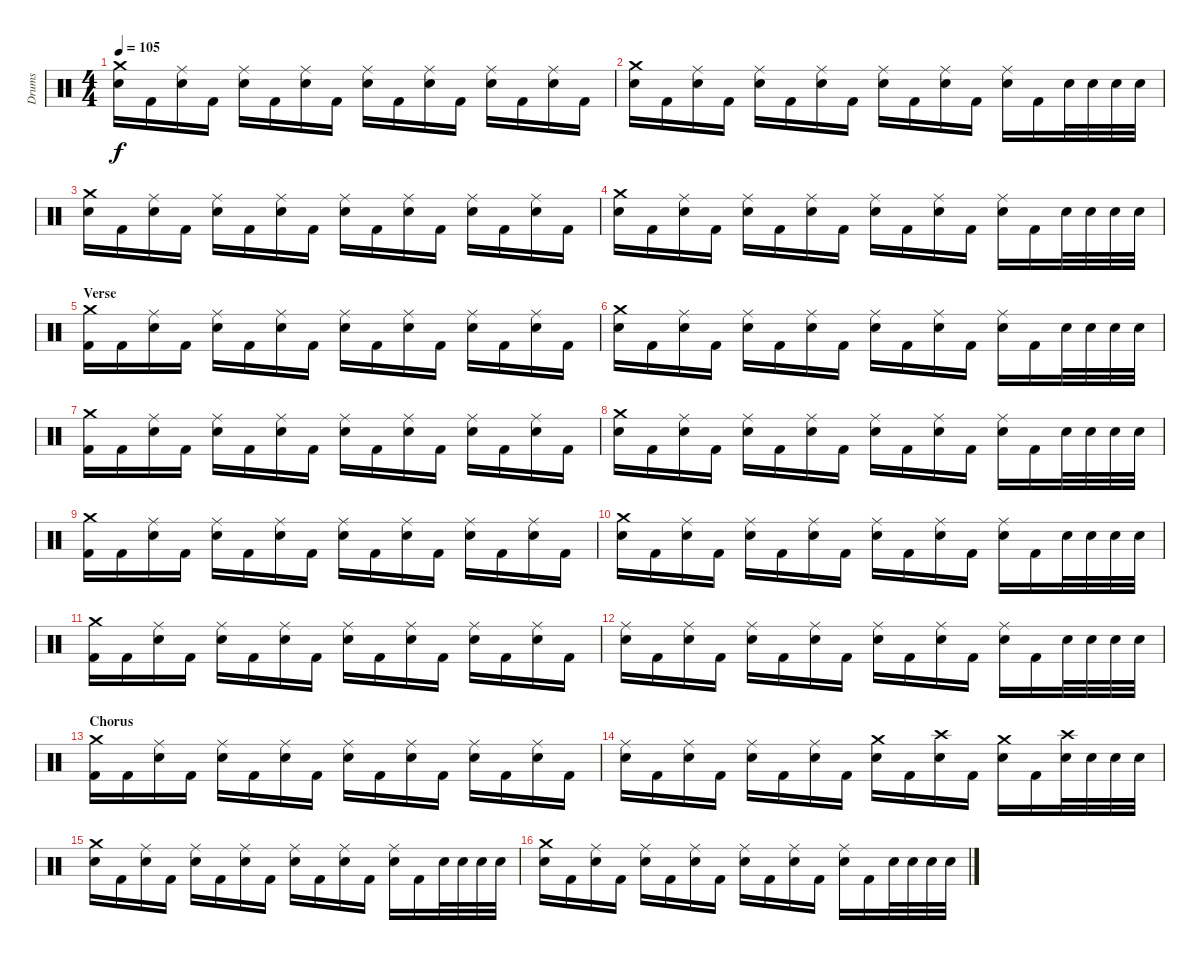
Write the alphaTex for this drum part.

\track ("Drums" "Drums") {instrument percussion}
\staff {score}
\articulation defaults
\ts (4 4)
\tempo 105
\clef neutral
\ks c
("Crash medium (hit)" "Electric Snare (hit)").16{dy f} "Kick (hit) 2".16 ("Ride (middle)" "Electric Snare (hit)").16 "Kick (hit) 2".16 ("Ride (middle)" "Electric Snare (hit)").16 "Kick (hit) 2".16 ("Ride (middle)" "Electric Snare (hit)").16 "Kick (hit) 2".16 ("Ride (middle)" "Electric Snare (hit)").16 "Kick (hit) 2".16 ("Ride (middle)" "Electric Snare (hit)").16 "Kick (hit) 2".16 ("Ride (middle)" "Electric Snare (hit)").16 "Kick (hit) 2".16 ("Ride (middle)" "Electric Snare (hit)").16 "Kick (hit) 2".16 |
("Crash medium (hit)" "Electric Snare (hit)").16 "Kick (hit) 2".16 ("Ride (middle)" "Electric Snare (hit)").16 "Kick (hit) 2".16 ("Ride (middle)" "Electric Snare (hit)").16 "Kick (hit) 2".16 ("Ride (middle)" "Electric Snare (hit)").16 "Kick (hit) 2".16 ("Ride (middle)" "Electric Snare (hit)").16 "Kick (hit) 2".16 ("Ride (middle)" "Electric Snare (hit)").16 "Kick (hit) 2".16 ("Ride (middle)" "Electric Snare (hit)").16 "Kick (hit) 2".16 "Electric Snare (hit)".32 "Electric Snare (hit)".32 "Electric Snare (hit)".32 "Electric Snare (hit)".32 |
("Crash medium (hit)" "Electric Snare (hit)").16 "Kick (hit) 2".16 ("Ride (middle)" "Electric Snare (hit)").16 "Kick (hit) 2".16 ("Ride (middle)" "Electric Snare (hit)").16 "Kick (hit) 2".16 ("Ride (middle)" "Electric Snare (hit)").16 "Kick (hit) 2".16 ("Ride (middle)" "Electric Snare (hit)").16 "Kick (hit) 2".16 ("Ride (middle)" "Electric Snare (hit)").16 "Kick (hit) 2".16 ("Ride (middle)" "Electric Snare (hit)").16 "Kick (hit) 2".16 ("Ride (middle)" "Electric Snare (hit)").16 "Kick (hit) 2".16 |
("Crash medium (hit)" "Electric Snare (hit)").16 "Kick (hit) 2".16 ("Ride (middle)" "Electric Snare (hit)").16 "Kick (hit) 2".16 ("Ride (middle)" "Electric Snare (hit)").16 "Kick (hit) 2".16 ("Ride (middle)" "Electric Snare (hit)").16 "Kick (hit) 2".16 ("Ride (middle)" "Electric Snare (hit)").16 "Kick (hit) 2".16 ("Ride (middle)" "Electric Snare (hit)").16 "Kick (hit) 2".16 ("Ride (middle)" "Electric Snare (hit)").16 "Kick (hit) 2".16 "Electric Snare (hit)".32 "Electric Snare (hit)".32 "Electric Snare (hit)".32 "Electric Snare (hit)".32 |
\section ("" "Verse")
("Crash medium (hit)" "Kick (hit) 2").16 "Kick (hit) 2".16 ("Ride (middle)" "Electric Snare (hit)").16 "Kick (hit) 2".16 ("Ride (middle)" "Electric Snare (hit)").16 "Kick (hit) 2".16 ("Ride (middle)" "Electric Snare (hit)").16 "Kick (hit) 2".16 ("Ride (middle)" "Electric Snare (hit)").16 "Kick (hit) 2".16 ("Ride (middle)" "Electric Snare (hit)").16 "Kick (hit) 2".16 ("Ride (middle)" "Electric Snare (hit)").16 "Kick (hit) 2".16 ("Ride (middle)" "Electric Snare (hit)").16 "Kick (hit) 2".16 |
("Crash medium (hit)" "Electric Snare (hit)").16 "Kick (hit) 2".16 ("Ride (middle)" "Electric Snare (hit)").16 "Kick (hit) 2".16 ("Ride (middle)" "Electric Snare (hit)").16 "Kick (hit) 2".16 ("Ride (middle)" "Electric Snare (hit)").16 "Kick (hit) 2".16 ("Ride (middle)" "Electric Snare (hit)").16 "Kick (hit) 2".16 ("Ride (middle)" "Electric Snare (hit)").16 "Kick (hit) 2".16 ("Ride (middle)" "Electric Snare (hit)").16 "Kick (hit) 2".16 "Electric Snare (hit)".32 "Electric Snare (hit)".32 "Electric Snare (hit)".32 "Electric Snare (hit)".32 |
("Crash medium (hit)" "Kick (hit) 2").16 "Kick (hit) 2".16 ("Ride (middle)" "Electric Snare (hit)").16 "Kick (hit) 2".16 ("Ride (middle)" "Electric Snare (hit)").16 "Kick (hit) 2".16 ("Ride (middle)" "Electric Snare (hit)").16 "Kick (hit) 2".16 ("Ride (middle)" "Electric Snare (hit)").16 "Kick (hit) 2".16 ("Ride (middle)" "Electric Snare (hit)").16 "Kick (hit) 2".16 ("Ride (middle)" "Electric Snare (hit)").16 "Kick (hit) 2".16 ("Ride (middle)" "Electric Snare (hit)").16 "Kick (hit) 2".16 |
("Crash medium (hit)" "Electric Snare (hit)").16 "Kick (hit) 2".16 ("Ride (middle)" "Electric Snare (hit)").16 "Kick (hit) 2".16 ("Ride (middle)" "Electric Snare (hit)").16 "Kick (hit) 2".16 ("Ride (middle)" "Electric Snare (hit)").16 "Kick (hit) 2".16 ("Ride (middle)" "Electric Snare (hit)").16 "Kick (hit) 2".16 ("Ride (middle)" "Electric Snare (hit)").16 "Kick (hit) 2".16 ("Ride (middle)" "Electric Snare (hit)").16 "Kick (hit) 2".16 "Electric Snare (hit)".32 "Electric Snare (hit)".32 "Electric Snare (hit)".32 "Electric Snare (hit)".32 |
("Crash medium (hit)" "Kick (hit) 2").16 "Kick (hit) 2".16 ("Ride (middle)" "Electric Snare (hit)").16 "Kick (hit) 2".16 ("Ride (middle)" "Electric Snare (hit)").16 "Kick (hit) 2".16 ("Ride (middle)" "Electric Snare (hit)").16 "Kick (hit) 2".16 ("Ride (middle)" "Electric Snare (hit)").16 "Kick (hit) 2".16 ("Ride (middle)" "Electric Snare (hit)").16 "Kick (hit) 2".16 ("Ride (middle)" "Electric Snare (hit)").16 "Kick (hit) 2".16 ("Ride (middle)" "Electric Snare (hit)").16 "Kick (hit) 2".16 |
("Crash medium (hit)" "Electric Snare (hit)").16 "Kick (hit) 2".16 ("Ride (middle)" "Electric Snare (hit)").16 "Kick (hit) 2".16 ("Ride (middle)" "Electric Snare (hit)").16 "Kick (hit) 2".16 ("Ride (middle)" "Electric Snare (hit)").16 "Kick (hit) 2".16 ("Ride (middle)" "Electric Snare (hit)").16 "Kick (hit) 2".16 ("Ride (middle)" "Electric Snare (hit)").16 "Kick (hit) 2".16 ("Ride (middle)" "Electric Snare (hit)").16 "Kick (hit) 2".16 "Electric Snare (hit)".32 "Electric Snare (hit)".32 "Electric Snare (hit)".32 "Electric Snare (hit)".32 |
("Crash medium (hit)" "Kick (hit) 2").16 "Kick (hit) 2".16 ("Ride (middle)" "Electric Snare (hit)").16 "Kick (hit) 2".16 ("Ride (middle)" "Electric Snare (hit)").16 "Kick (hit) 2".16 ("Ride (middle)" "Electric Snare (hit)").16 "Kick (hit) 2".16 ("Ride (middle)" "Electric Snare (hit)").16 "Kick (hit) 2".16 ("Ride (middle)" "Electric Snare (hit)").16 "Kick (hit) 2".16 ("Ride (middle)" "Electric Snare (hit)").16 "Kick (hit) 2".16 ("Ride (middle)" "Electric Snare (hit)").16 "Kick (hit) 2".16 |
("Ride (middle)" "Electric Snare (hit)").16 "Kick (hit) 2".16 ("Ride (middle)" "Electric Snare (hit)").16 "Kick (hit) 2".16 ("Ride (middle)" "Electric Snare (hit)").16 "Kick (hit) 2".16 ("Ride (middle)" "Electric Snare (hit)").16 "Kick (hit) 2".16 ("Ride (middle)" "Electric Snare (hit)").16 "Kick (hit) 2".16 ("Ride (middle)" "Electric Snare (hit)").16 "Kick (hit) 2".16 ("Ride (middle)" "Electric Snare (hit)").16 "Kick (hit) 2".16 "Electric Snare (hit)".32 "Electric Snare (hit)".32 "Electric Snare (hit)".32 "Electric Snare (hit)".32 |
\section ("" "Chorus")
("Crash medium (hit)" "Kick (hit) 2").16 "Kick (hit) 2".16 ("Ride (middle)" "Electric Snare (hit)").16 "Kick (hit) 2".16 ("Ride (middle)" "Electric Snare (hit)").16 "Kick (hit) 2".16 ("Ride (middle)" "Electric Snare (hit)").16 "Kick (hit) 2".16 ("Ride (middle)" "Electric Snare (hit)").16 "Kick (hit) 2".16 ("Ride (middle)" "Electric Snare (hit)").16 "Kick (hit) 2".16 ("Ride (middle)" "Electric Snare (hit)").16 "Kick (hit) 2".16 ("Ride (middle)" "Electric Snare (hit)").16 "Kick (hit) 2".16 |
("Ride (middle)" "Electric Snare (hit)").16 "Kick (hit) 2".16 ("Ride (middle)" "Electric Snare (hit)").16 "Kick (hit) 2".16 ("Ride (middle)" "Electric Snare (hit)").16 "Kick (hit) 2".16 ("Ride (middle)" "Electric Snare (hit)").16 "Kick (hit) 2".16 ("Crash medium (hit)" "Electric Snare (hit)").16 "Kick (hit) 2".16 ("Crash high (hit)" "Electric Snare (hit)").16 "Kick (hit) 2".16 ("Crash medium (hit)" "Electric Snare (hit)").16 "Kick (hit) 2".16 ("Crash high (hit)" "Electric Snare (hit)").32 "Electric Snare (hit)".32 "Electric Snare (hit)".32 "Electric Snare (hit)".32 |
("Crash medium (hit)" "Electric Snare (hit)").16 "Kick (hit) 2".16 ("Ride (middle)" "Electric Snare (hit)").16 "Kick (hit) 2".16 ("Ride (middle)" "Electric Snare (hit)").16 "Kick (hit) 2".16 ("Ride (middle)" "Electric Snare (hit)").16 "Kick (hit) 2".16 ("Ride (middle)" "Electric Snare (hit)").16 "Kick (hit) 2".16 ("Ride (middle)" "Electric Snare (hit)").16 "Kick (hit) 2".16 ("Ride (middle)" "Electric Snare (hit)").16 "Kick (hit) 2".16 "Electric Snare (hit)".32 "Electric Snare (hit)".32 "Electric Snare (hit)".32 "Electric Snare (hit)".32 |
("Crash medium (hit)" "Electric Snare (hit)").16 "Kick (hit) 2".16 ("Ride (middle)" "Electric Snare (hit)").16 "Kick (hit) 2".16 ("Ride (middle)" "Electric Snare (hit)").16 "Kick (hit) 2".16 ("Ride (middle)" "Electric Snare (hit)").16 "Kick (hit) 2".16 ("Ride (middle)" "Electric Snare (hit)").16 "Kick (hit) 2".16 ("Ride (middle)" "Electric Snare (hit)").16 "Kick (hit) 2".16 ("Ride (middle)" "Electric Snare (hit)").16 "Kick (hit) 2".16 "Electric Snare (hit)".32 "Electric Snare (hit)".32 "Electric Snare (hit)".32 "Electric Snare (hit)".32
